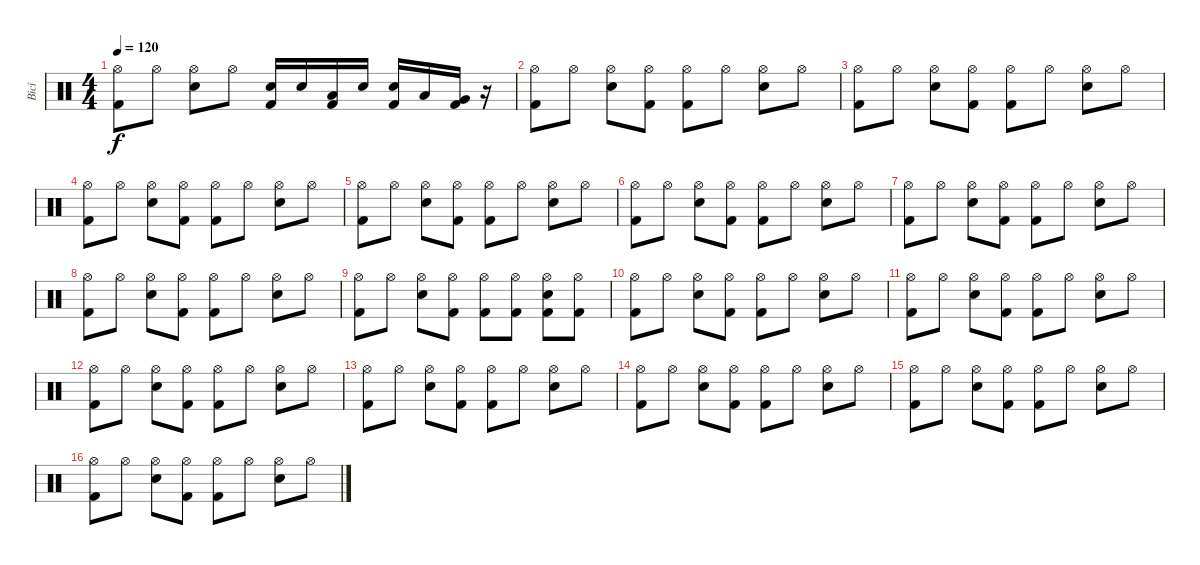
\track ("Bicí" "Bicí") {instrument percussion}
\staff {score}
\articulation defaults
\ts (4 4)
\tempo 120
\clef neutral
\ks c
("Hi-Hat (open)" "Kick (hit) 2").8{dy f} "Hi-Hat (open)".8 ("Hi-Hat (open)" "Electric Snare (hit)").8 "Hi-Hat (open)".8 ("Electric Snare (hit)" "Kick (hit) 2").16 "Electric Snare (hit)".16 ("Low Tom (hit)" "Kick (hit) 2").16 "Electric Snare (hit)".16 ("Electric Snare (hit)" "Kick (hit) 2").16 "Low Tom (hit)".16 ("Very Low Tom (hit)" "Kick (hit) 2").16 r.16 |
("Hi-Hat (open)" "Kick (hit) 2").8 "Hi-Hat (open)".8 ("Hi-Hat (open)" "Electric Snare (hit)").8 ("Hi-Hat (open)" "Kick (hit) 2").8 ("Hi-Hat (open)" "Kick (hit) 2").8 "Hi-Hat (open)".8 ("Hi-Hat (open)" "Electric Snare (hit)").8 "Hi-Hat (open)".8 |
("Hi-Hat (open)" "Kick (hit) 2").8 "Hi-Hat (open)".8 ("Hi-Hat (open)" "Electric Snare (hit)").8 ("Hi-Hat (open)" "Kick (hit) 2").8 ("Hi-Hat (open)" "Kick (hit) 2").8 "Hi-Hat (open)".8 ("Hi-Hat (open)" "Electric Snare (hit)").8 "Hi-Hat (open)".8 |
("Hi-Hat (open)" "Kick (hit) 2").8 "Hi-Hat (open)".8 ("Hi-Hat (open)" "Electric Snare (hit)").8 ("Hi-Hat (open)" "Kick (hit) 2").8 ("Hi-Hat (open)" "Kick (hit) 2").8 "Hi-Hat (open)".8 ("Hi-Hat (open)" "Electric Snare (hit)").8 "Hi-Hat (open)".8 |
("Hi-Hat (open)" "Kick (hit) 2").8 "Hi-Hat (open)".8 ("Hi-Hat (open)" "Electric Snare (hit)").8 ("Hi-Hat (open)" "Kick (hit) 2").8 ("Hi-Hat (open)" "Kick (hit) 2").8 "Hi-Hat (open)".8 ("Hi-Hat (open)" "Electric Snare (hit)").8 "Hi-Hat (open)".8 |
("Hi-Hat (open)" "Kick (hit) 2").8 "Hi-Hat (open)".8 ("Hi-Hat (open)" "Electric Snare (hit)").8 ("Hi-Hat (open)" "Kick (hit) 2").8 ("Hi-Hat (open)" "Kick (hit) 2").8 "Hi-Hat (open)".8 ("Hi-Hat (open)" "Electric Snare (hit)").8 "Hi-Hat (open)".8 |
("Hi-Hat (open)" "Kick (hit) 2").8 "Hi-Hat (open)".8 ("Hi-Hat (open)" "Electric Snare (hit)").8 ("Hi-Hat (open)" "Kick (hit) 2").8 ("Hi-Hat (open)" "Kick (hit) 2").8 "Hi-Hat (open)".8 ("Hi-Hat (open)" "Electric Snare (hit)").8 "Hi-Hat (open)".8 |
("Hi-Hat (open)" "Kick (hit) 2").8 "Hi-Hat (open)".8 ("Hi-Hat (open)" "Electric Snare (hit)").8 ("Hi-Hat (open)" "Kick (hit) 2").8 ("Hi-Hat (open)" "Kick (hit) 2").8 "Hi-Hat (open)".8 ("Hi-Hat (open)" "Electric Snare (hit)").8 "Hi-Hat (open)".8 |
("Hi-Hat (open)" "Kick (hit) 2").8 "Hi-Hat (open)".8 ("Hi-Hat (open)" "Electric Snare (hit)").8 ("Hi-Hat (open)" "Kick (hit) 2").8 ("Hi-Hat (open)" "Kick (hit) 2").8 ("Hi-Hat (open)" "Kick (hit) 2").8 ("Hi-Hat (open)" "Electric Snare (hit)" "Kick (hit) 2").8 ("Hi-Hat (open)" "Kick (hit) 2").8 |
("Hi-Hat (open)" "Kick (hit) 2").8 "Hi-Hat (open)".8 ("Hi-Hat (open)" "Electric Snare (hit)").8 ("Hi-Hat (open)" "Kick (hit) 2").8 ("Hi-Hat (open)" "Kick (hit) 2").8 "Hi-Hat (open)".8 ("Hi-Hat (open)" "Electric Snare (hit)").8 "Hi-Hat (open)".8 |
("Hi-Hat (open)" "Kick (hit) 2").8 "Hi-Hat (open)".8 ("Hi-Hat (open)" "Electric Snare (hit)").8 ("Hi-Hat (open)" "Kick (hit) 2").8 ("Hi-Hat (open)" "Kick (hit) 2").8 "Hi-Hat (open)".8 ("Hi-Hat (open)" "Electric Snare (hit)").8 "Hi-Hat (open)".8 |
("Hi-Hat (open)" "Kick (hit) 2").8 "Hi-Hat (open)".8 ("Hi-Hat (open)" "Electric Snare (hit)").8 ("Hi-Hat (open)" "Kick (hit) 2").8 ("Hi-Hat (open)" "Kick (hit) 2").8 "Hi-Hat (open)".8 ("Hi-Hat (open)" "Electric Snare (hit)").8 "Hi-Hat (open)".8 |
("Hi-Hat (open)" "Kick (hit) 2").8 "Hi-Hat (open)".8 ("Hi-Hat (open)" "Electric Snare (hit)").8 ("Hi-Hat (open)" "Kick (hit) 2").8 ("Hi-Hat (open)" "Kick (hit) 2").8 "Hi-Hat (open)".8 ("Hi-Hat (open)" "Electric Snare (hit)").8 "Hi-Hat (open)".8 |
("Hi-Hat (open)" "Kick (hit) 2").8 "Hi-Hat (open)".8 ("Hi-Hat (open)" "Electric Snare (hit)").8 ("Hi-Hat (open)" "Kick (hit) 2").8 ("Hi-Hat (open)" "Kick (hit) 2").8 "Hi-Hat (open)".8 ("Hi-Hat (open)" "Electric Snare (hit)").8 "Hi-Hat (open)".8 |
("Hi-Hat (open)" "Kick (hit) 2").8 "Hi-Hat (open)".8 ("Hi-Hat (open)" "Electric Snare (hit)").8 ("Hi-Hat (open)" "Kick (hit) 2").8 ("Hi-Hat (open)" "Kick (hit) 2").8 "Hi-Hat (open)".8 ("Hi-Hat (open)" "Electric Snare (hit)").8 "Hi-Hat (open)".8 |
("Hi-Hat (open)" "Kick (hit) 2").8 "Hi-Hat (open)".8 ("Hi-Hat (open)" "Electric Snare (hit)").8 ("Hi-Hat (open)" "Kick (hit) 2").8 ("Hi-Hat (open)" "Kick (hit) 2").8 "Hi-Hat (open)".8 ("Hi-Hat (open)" "Electric Snare (hit)").8 "Hi-Hat (open)".8
